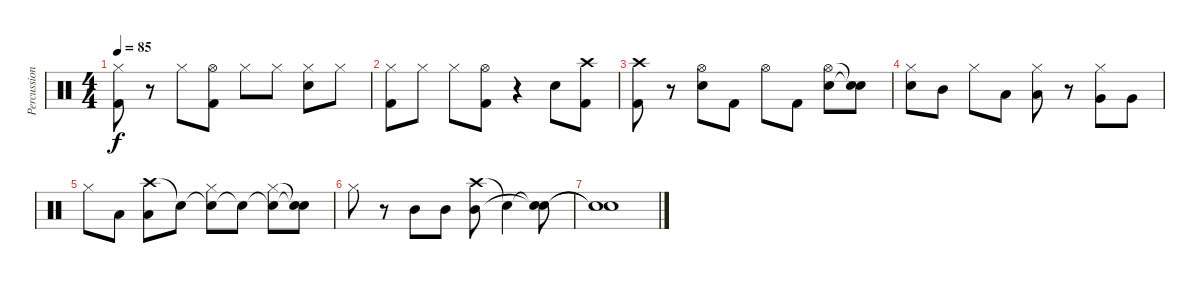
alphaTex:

\track ("Percussion" "Percussion") {instrument percussion}
\staff {score}
\articulation defaults
\ts (4 4)
\tempo 85
\clef neutral
\ks c
("Hi-Hat (closed)" "Kick (hit) 2").8{dy f} r.8 "Hi-Hat (closed)".8 ("Hi-Hat (open)" "Kick (hit) 2").8 "Hi-Hat (closed)".8 "Hi-Hat (closed)".8 ("Hi-Hat (closed)" "Electric Snare (hit)").8 "Hi-Hat (closed)".8 |
("Hi-Hat (closed)" "Kick (hit) 2").8 "Hi-Hat (closed)".8 "Hi-Hat (closed)".8 ("Hi-Hat (open)" "Kick (hit) 2").8 r.4 "Electric Snare (hit)".8 ("Crash high (hit)" "Kick (hit) 2").8 |
("Crash high (hit)" "Kick (hit) 2").8 r.8 ("Hi-Hat (open)" "Electric Snare (hit)").8 "Kick (hit) 2".8 "Hi-Hat (open)".8 "Kick (hit) 2".8 ("Hi-Hat (open)" "Electric Snare (hit)").8 ("Snare (hit)"{t} "Snare (hit)"{t}).8 |
("Hi-Hat (closed)" "Electric Snare (hit)").8 "Mid Tom (hit)".8 "Hi-Hat (closed)".8 "Low Tom (hit)".8 ("Hi-Hat (closed)" "Low Tom (hit)").8 r.8 ("Hi-Hat (closed)" "Very Low Tom (hit)").8 "Very Low Tom (hit)".8 |
"Hi-Hat (closed)".8 "Low Floor Tom (hit)".8 ("Crash high (hit)" "Low Floor Tom (hit)").8 "Snare (hit)"{t}.8 ("Snare (hit)"{t} "Hi-Hat (closed)").8 "Snare (hit)"{t}.8 ("Snare (hit)"{t} "Hi-Hat (closed)").8 ("Snare (hit)"{t} "Snare (hit)"{t}).8 |
"Hi-Hat (closed)".8 r.8 "Mid Tom (hit)".8 "Mid Tom (hit)".8 ("Crash high (hit)" "Mid Tom (hit)").8 "Snare (hit)"{t}.4 ("Snare (hit)"{t} "Snare (hit)"{t}).8 |
("Snare (hit)"{t} "Snare (hit)"{t}).1
